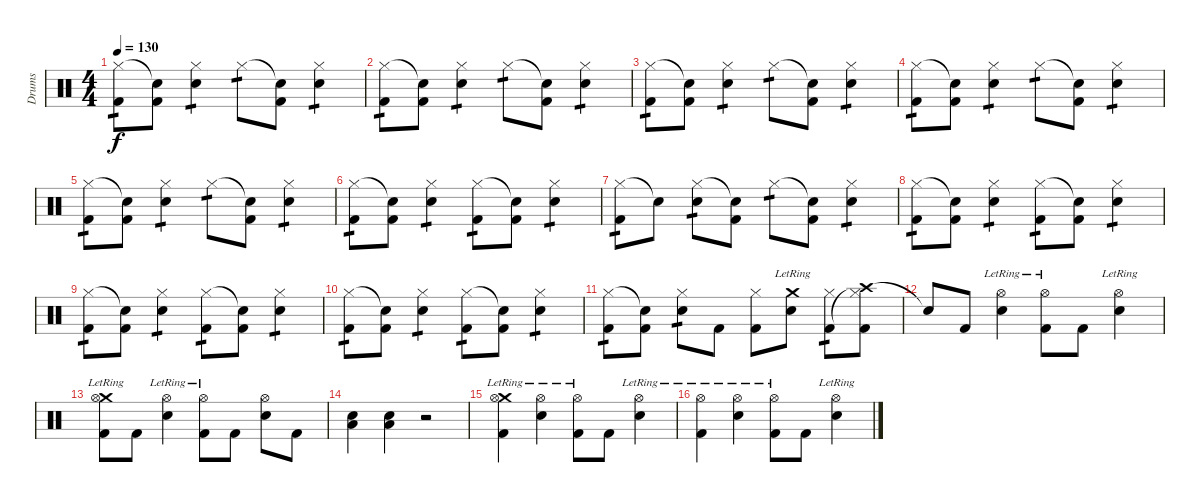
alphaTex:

\track ("Drums" "Drums") {instrument percussion}
\staff {score}
\articulation defaults
\ts (4 4)
\tempo 130
\clef neutral
\ks c
("Hi-Hat (closed)" "Kick (hit) 2").8{tp 1 dy f} ("Snare (hit)"{t} "Kick (hit) 2").8 ("Hi-Hat (closed)" "Electric Snare (hit)").4{tp 1} "Hi-Hat (closed)".8{tp 1} ("Snare (hit)"{t} "Kick (hit) 2").8 ("Hi-Hat (closed)" "Electric Snare (hit)").4{tp 1} |
("Hi-Hat (closed)" "Kick (hit) 2").8{tp 1} ("Snare (hit)"{t} "Kick (hit) 2").8 ("Hi-Hat (closed)" "Electric Snare (hit)").4{tp 1} "Hi-Hat (closed)".8{tp 1} ("Snare (hit)"{t} "Kick (hit) 2").8 ("Hi-Hat (closed)" "Electric Snare (hit)").4{tp 1} |
("Hi-Hat (closed)" "Kick (hit) 2").8{tp 1} ("Snare (hit)"{t} "Kick (hit) 2").8 ("Hi-Hat (closed)" "Electric Snare (hit)").4{tp 1} "Hi-Hat (closed)".8{tp 1} ("Snare (hit)"{t} "Kick (hit) 2").8 ("Hi-Hat (closed)" "Electric Snare (hit)").4{tp 1} |
("Hi-Hat (closed)" "Kick (hit) 2").8{tp 1} ("Snare (hit)"{t} "Kick (hit) 2").8 ("Hi-Hat (closed)" "Electric Snare (hit)").4{tp 1} "Hi-Hat (closed)".8{tp 1} ("Snare (hit)"{t} "Kick (hit) 2").8 ("Hi-Hat (closed)" "Electric Snare (hit)").4{tp 1} |
("Hi-Hat (closed)" "Kick (hit) 2").8{tp 1} ("Snare (hit)"{t} "Kick (hit) 2").8 ("Hi-Hat (closed)" "Electric Snare (hit)").4{tp 1} "Hi-Hat (closed)".8{tp 1} ("Snare (hit)"{t} "Kick (hit) 2").8 ("Hi-Hat (closed)" "Electric Snare (hit)").4{tp 1} |
("Hi-Hat (closed)" "Kick (hit) 2").8{tp 1} ("Snare (hit)"{t} "Kick (hit) 2").8 ("Hi-Hat (closed)" "Electric Snare (hit)").4{tp 1} ("Hi-Hat (closed)" "Kick (hit) 2").8{tp 1} ("Snare (hit)"{t} "Kick (hit) 2").8 ("Hi-Hat (closed)" "Electric Snare (hit)").4{tp 1} |
("Hi-Hat (closed)" "Kick (hit) 2").8{tp 1} "Snare (hit)"{t}.8 ("Hi-Hat (closed)" "Electric Snare (hit)").8{tp 1} ("Snare (hit)"{t} "Kick (hit) 2").8 "Hi-Hat (closed)".8{tp 1} ("Snare (hit)"{t} "Kick (hit) 2").8 ("Hi-Hat (closed)" "Electric Snare (hit)").4{tp 1} |
("Hi-Hat (closed)" "Kick (hit) 2").8{tp 1} ("Snare (hit)"{t} "Kick (hit) 2").8 ("Hi-Hat (closed)" "Electric Snare (hit)").4{tp 1} ("Hi-Hat (closed)" "Kick (hit) 2").8{tp 1} ("Snare (hit)"{t} "Kick (hit) 2").8 ("Hi-Hat (closed)" "Electric Snare (hit)").4{tp 1} |
("Hi-Hat (closed)" "Kick (hit) 2").8{tp 1} ("Snare (hit)"{t} "Kick (hit) 2").8 ("Hi-Hat (closed)" "Electric Snare (hit)").4{tp 1} ("Hi-Hat (closed)" "Kick (hit) 2").8{tp 1} ("Snare (hit)"{t} "Kick (hit) 2").8 ("Hi-Hat (closed)" "Electric Snare (hit)").4{tp 1} |
("Hi-Hat (closed)" "Kick (hit) 2").8{tp 1} ("Snare (hit)"{t} "Kick (hit) 2").8 ("Hi-Hat (closed)" "Electric Snare (hit)").4{tp 1} ("Hi-Hat (closed)" "Kick (hit) 2").8{tp 1} ("Snare (hit)"{t} "Kick (hit) 2").8 ("Hi-Hat (closed)" "Electric Snare (hit)").4{tp 1} |
("Hi-Hat (closed)" "Kick (hit) 2").8{tp 1} ("Snare (hit)"{t} "Kick (hit) 2").8 ("Hi-Hat (closed)" "Electric Snare (hit)").8{tp 1} "Kick (hit) 2".8 ("Hi-Hat (closed)" "Kick (hit) 2").8 ("Crash medium (hit)"{lr} "Electric Snare (hit)").8 ("Hi-Hat (closed)" "Kick (hit) 2").8{tp 1} ("Crash high (hit)" "Hi-Hat (closed)"{t} "Kick (hit) 2").8 |
"Snare (hit)"{t}.8 "Kick (hit) 2".8 ("Hi-Hat (open)"{lr} "Electric Snare (hit)").4 ("Hi-Hat (open)"{lr} "Kick (hit) 2").8 "Kick (hit) 2".8 ("Hi-Hat (open)"{lr} "Electric Snare (hit)").4 |
("Crash medium (hit)"{lr} "Hi-Hat (open)"{lr} "Kick (hit) 2").8 "Kick (hit) 2".8 ("Hi-Hat (open)"{lr} "Electric Snare (hit)").4 ("Hi-Hat (open)"{lr} "Kick (hit) 2").8 "Kick (hit) 2".8 ("Hi-Hat (open)" "Electric Snare (hit)").8 "Kick (hit) 2".8 |
("Low Floor Tom (hit)" "Electric Snare (hit)").4 ("Low Floor Tom (hit)" "Electric Snare (hit)").4 r.2 |
("Crash medium (hit)" "Hi-Hat (open)"{lr} "Kick (hit) 2").4 ("Hi-Hat (open)"{lr} "Electric Snare (hit)").4 ("Hi-Hat (open)"{lr} "Kick (hit) 2").8 "Kick (hit) 2".8 ("Hi-Hat (open)"{lr} "Electric Snare (hit)").4 |
("Hi-Hat (open)"{lr} "Kick (hit) 2").4 ("Hi-Hat (open)"{lr} "Electric Snare (hit)").4 ("Hi-Hat (open)"{lr} "Kick (hit) 2").8 "Kick (hit) 2".8 ("Hi-Hat (open)"{lr} "Electric Snare (hit)").4
